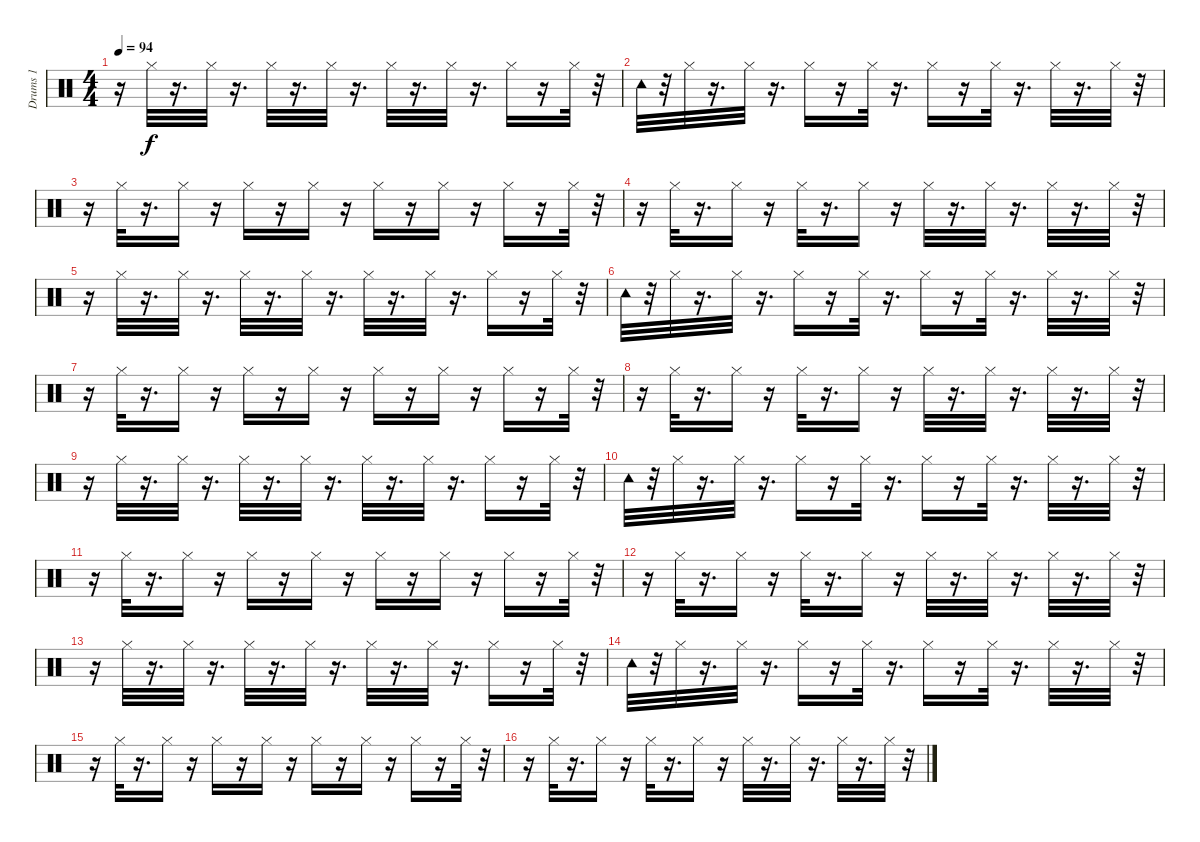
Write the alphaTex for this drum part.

\track ("Drums 1 " "Drums 1 ") {instrument percussion}
\staff {score}
\articulation defaults
\ts (4 4)
\tempo 94
\clef neutral
\ks c
r.16{dy f} "Hi-Hat (closed)".32 r.16{d} "Hi-Hat (closed)".32 r.16{d} "Hi-Hat (closed)".32 r.16{d} "Hi-Hat (closed)".32 r.16{d} "Hi-Hat (closed)".32 r.16{d} "Hi-Hat (closed)".32 r.16{d} "Hi-Hat (closed)".16 r.16 "Hi-Hat (closed)".32 r.32 |
"Tambourine (hit)".32 r.32 "Hi-Hat (closed)".32 r.16{d} "Hi-Hat (closed)".32 r.16{d} "Hi-Hat (closed)".16 r.16 "Hi-Hat (closed)".32 r.16{d} "Hi-Hat (closed)".16 r.16 "Hi-Hat (closed)".32 r.16{d} "Hi-Hat (closed)".32 r.16{d} "Hi-Hat (closed)".32 r.32 |
r.16 "Hi-Hat (closed)".32 r.16{d} "Hi-Hat (closed)".16 r.16 "Hi-Hat (closed)".16 r.16 "Hi-Hat (closed)".16 r.16 "Hi-Hat (closed)".16 r.16 "Hi-Hat (closed)".16 r.16 "Hi-Hat (closed)".16 r.16 "Hi-Hat (closed)".32 r.32 |
r.16 "Hi-Hat (closed)".32 r.16{d} "Hi-Hat (closed)".16 r.16 "Hi-Hat (closed)".32 r.16{d} "Hi-Hat (closed)".16 r.16 "Hi-Hat (closed)".32 r.16{d} "Hi-Hat (closed)".32 r.16{d} "Hi-Hat (closed)".32 r.16{d} "Hi-Hat (closed)".32 r.32 |
r.16 "Hi-Hat (closed)".32 r.16{d} "Hi-Hat (closed)".32 r.16{d} "Hi-Hat (closed)".32 r.16{d} "Hi-Hat (closed)".32 r.16{d} "Hi-Hat (closed)".32 r.16{d} "Hi-Hat (closed)".32 r.16{d} "Hi-Hat (closed)".16 r.16 "Hi-Hat (closed)".32 r.32 |
"Tambourine (hit)".32 r.32 "Hi-Hat (closed)".32 r.16{d} "Hi-Hat (closed)".32 r.16{d} "Hi-Hat (closed)".16 r.16 "Hi-Hat (closed)".32 r.16{d} "Hi-Hat (closed)".16 r.16 "Hi-Hat (closed)".32 r.16{d} "Hi-Hat (closed)".32 r.16{d} "Hi-Hat (closed)".32 r.32 |
r.16 "Hi-Hat (closed)".32 r.16{d} "Hi-Hat (closed)".16 r.16 "Hi-Hat (closed)".16 r.16 "Hi-Hat (closed)".16 r.16 "Hi-Hat (closed)".16 r.16 "Hi-Hat (closed)".16 r.16 "Hi-Hat (closed)".16 r.16 "Hi-Hat (closed)".32 r.32 |
r.16 "Hi-Hat (closed)".32 r.16{d} "Hi-Hat (closed)".16 r.16 "Hi-Hat (closed)".32 r.16{d} "Hi-Hat (closed)".16 r.16 "Hi-Hat (closed)".32 r.16{d} "Hi-Hat (closed)".32 r.16{d} "Hi-Hat (closed)".32 r.16{d} "Hi-Hat (closed)".32 r.32 |
r.16 "Hi-Hat (closed)".32 r.16{d} "Hi-Hat (closed)".32 r.16{d} "Hi-Hat (closed)".32 r.16{d} "Hi-Hat (closed)".32 r.16{d} "Hi-Hat (closed)".32 r.16{d} "Hi-Hat (closed)".32 r.16{d} "Hi-Hat (closed)".16 r.16 "Hi-Hat (closed)".32 r.32 |
"Tambourine (hit)".32 r.32 "Hi-Hat (closed)".32 r.16{d} "Hi-Hat (closed)".32 r.16{d} "Hi-Hat (closed)".16 r.16 "Hi-Hat (closed)".32 r.16{d} "Hi-Hat (closed)".16 r.16 "Hi-Hat (closed)".32 r.16{d} "Hi-Hat (closed)".32 r.16{d} "Hi-Hat (closed)".32 r.32 |
r.16 "Hi-Hat (closed)".32 r.16{d} "Hi-Hat (closed)".16 r.16 "Hi-Hat (closed)".16 r.16 "Hi-Hat (closed)".16 r.16 "Hi-Hat (closed)".16 r.16 "Hi-Hat (closed)".16 r.16 "Hi-Hat (closed)".16 r.16 "Hi-Hat (closed)".32 r.32 |
r.16 "Hi-Hat (closed)".32 r.16{d} "Hi-Hat (closed)".16 r.16 "Hi-Hat (closed)".32 r.16{d} "Hi-Hat (closed)".16 r.16 "Hi-Hat (closed)".32 r.16{d} "Hi-Hat (closed)".32 r.16{d} "Hi-Hat (closed)".32 r.16{d} "Hi-Hat (closed)".32 r.32 |
r.16 "Hi-Hat (closed)".32 r.16{d} "Hi-Hat (closed)".32 r.16{d} "Hi-Hat (closed)".32 r.16{d} "Hi-Hat (closed)".32 r.16{d} "Hi-Hat (closed)".32 r.16{d} "Hi-Hat (closed)".32 r.16{d} "Hi-Hat (closed)".16 r.16 "Hi-Hat (closed)".32 r.32 |
"Tambourine (hit)".32 r.32 "Hi-Hat (closed)".32 r.16{d} "Hi-Hat (closed)".32 r.16{d} "Hi-Hat (closed)".16 r.16 "Hi-Hat (closed)".32 r.16{d} "Hi-Hat (closed)".16 r.16 "Hi-Hat (closed)".32 r.16{d} "Hi-Hat (closed)".32 r.16{d} "Hi-Hat (closed)".32 r.32 |
r.16 "Hi-Hat (closed)".32 r.16{d} "Hi-Hat (closed)".16 r.16 "Hi-Hat (closed)".16 r.16 "Hi-Hat (closed)".16 r.16 "Hi-Hat (closed)".16 r.16 "Hi-Hat (closed)".16 r.16 "Hi-Hat (closed)".16 r.16 "Hi-Hat (closed)".32 r.32 |
r.16 "Hi-Hat (closed)".32 r.16{d} "Hi-Hat (closed)".16 r.16 "Hi-Hat (closed)".32 r.16{d} "Hi-Hat (closed)".16 r.16 "Hi-Hat (closed)".32 r.16{d} "Hi-Hat (closed)".32 r.16{d} "Hi-Hat (closed)".32 r.16{d} "Hi-Hat (closed)".32 r.32
